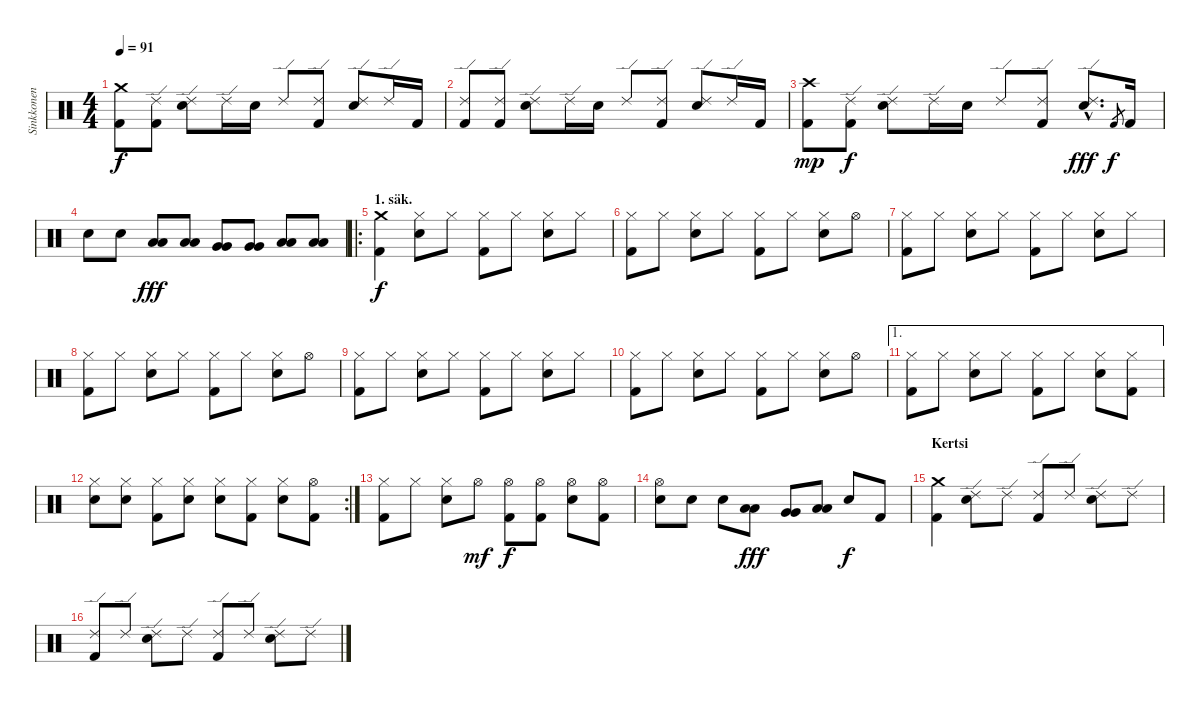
\track ("Sinkkonen" "Sinkkonen") {instrument percussion}
\staff {score}
\articulation defaults
\ts (4 4)
\tempo 91
\clef neutral
\ks c
("Kick (hit) 2" "Crash medium (hit)").8{dy f} ("Kick (hit) 2" "Ride (edge) 2").8 ("Ride (edge) 2" "Snare (hit) 2").8 "Ride (edge) 2".16 "Snare (hit) 2".16 "Ride (edge) 2".8 ("Kick (hit) 2" "Ride (edge) 2").8 ("Ride (edge) 2" "Snare (hit) 2").8 "Ride (edge) 2".16 "Kick (hit) 2".16 |
("Kick (hit) 2" "Ride (edge) 2").8 ("Kick (hit) 2" "Ride (edge) 2").8 ("Ride (edge) 2" "Snare (hit) 2").8 "Ride (edge) 2".16 "Snare (hit) 2".16 "Ride (edge) 2".8 ("Kick (hit) 2" "Ride (edge) 2").8 ("Ride (edge) 2" "Snare (hit) 2").8 "Ride (edge) 2".16 "Kick (hit) 2".16 |
("Kick (hit) 2" "Crash high (hit)").8{dy mp} ("Kick (hit) 2" "Ride (edge) 2").8{dy f} ("Ride (edge) 2" "Snare (hit) 2").8 "Ride (edge) 2".16 "Snare (hit) 2".16 "Ride (edge) 2".8 ("Kick (hit) 2" "Ride (edge) 2").8 ("Ride (edge) 2"{hac} "Snare (hit) 2"{hac}).8{d dy fff} "Kick (hit) 2".8{gr dy f} "Kick (hit) 2".16 |
"Snare (hit) 2".8 "Snare (hit) 2".8 ("Low Tom (hit)" "Low Tom (hit)").8{dy fff} ("Low Tom (hit)" "Low Tom (hit)").8 ("Very Low Tom (hit)" "Very Low Tom (hit)").8 ("Very Low Tom (hit)" "Very Low Tom (hit)").8 ("Low Floor Tom (hit)" "Low Floor Tom (hit)").8 ("Low Floor Tom (hit)" "Low Floor Tom (hit)").8 |
\ro
\section ("" "1. säk.")
("Kick (hit) 2" "Crash medium (hit)").4{dy f} ("Hi-Hat (closed)" "Snare (hit) 2").8 "Hi-Hat (closed)".8 ("Kick (hit) 2" "Hi-Hat (closed)").8 "Hi-Hat (closed)".8 ("Hi-Hat (closed)" "Snare (hit) 2").8 "Hi-Hat (closed)".8 |
("Kick (hit) 2" "Hi-Hat (closed)").8 "Hi-Hat (closed)".8 ("Hi-Hat (closed)" "Snare (hit) 2").8 "Hi-Hat (closed)".8 ("Kick (hit) 2" "Hi-Hat (closed)").8 "Hi-Hat (closed)".8 ("Hi-Hat (closed)" "Snare (hit) 2").8 "Hi-Hat (open)".8 |
("Kick (hit) 2" "Hi-Hat (closed)").8 "Hi-Hat (closed)".8 ("Hi-Hat (closed)" "Snare (hit) 2").8 "Hi-Hat (closed)".8 ("Kick (hit) 2" "Hi-Hat (closed)").8 "Hi-Hat (closed)".8 ("Hi-Hat (closed)" "Snare (hit) 2").8 "Hi-Hat (closed)".8 |
("Kick (hit) 2" "Hi-Hat (closed)").8 "Hi-Hat (closed)".8 ("Hi-Hat (closed)" "Snare (hit) 2").8 "Hi-Hat (closed)".8 ("Kick (hit) 2" "Hi-Hat (closed)").8 "Hi-Hat (closed)".8 ("Hi-Hat (closed)" "Snare (hit) 2").8 "Hi-Hat (open)".8 |
("Kick (hit) 2" "Hi-Hat (closed)").8 "Hi-Hat (closed)".8 ("Hi-Hat (closed)" "Snare (hit) 2").8 "Hi-Hat (closed)".8 ("Kick (hit) 2" "Hi-Hat (closed)").8 "Hi-Hat (closed)".8 ("Hi-Hat (closed)" "Snare (hit) 2").8 "Hi-Hat (closed)".8 |
("Kick (hit) 2" "Hi-Hat (closed)").8 "Hi-Hat (closed)".8 ("Hi-Hat (closed)" "Snare (hit) 2").8 "Hi-Hat (closed)".8 ("Kick (hit) 2" "Hi-Hat (closed)").8 "Hi-Hat (closed)".8 ("Hi-Hat (closed)" "Snare (hit) 2").8 "Hi-Hat (open)".8 |
\ae 1
("Kick (hit) 2" "Hi-Hat (closed)").8 "Hi-Hat (closed)".8 ("Hi-Hat (closed)" "Snare (hit) 2").8 "Hi-Hat (closed)".8 ("Kick (hit) 2" "Hi-Hat (closed)").8 "Hi-Hat (closed)".8 ("Hi-Hat (closed)" "Snare (hit) 2").8 ("Kick (hit) 2" "Hi-Hat (closed)").8 |
\rc 2
("Hi-Hat (closed)" "Snare (hit) 2").8 ("Hi-Hat (closed)" "Snare (hit) 2").8 ("Kick (hit) 2" "Hi-Hat (closed)").8 ("Hi-Hat (closed)" "Snare (hit) 2").8 ("Hi-Hat (closed)" "Snare (hit) 2").8 ("Kick (hit) 2" "Hi-Hat (closed)").8 ("Hi-Hat (closed)" "Snare (hit) 2").8 ("Kick (hit) 2" "Hi-Hat (open)").8 |
("Kick (hit) 2" "Hi-Hat (closed)").8 "Hi-Hat (closed)".8 ("Hi-Hat (closed)" "Snare (hit) 2").8 "Hi-Hat (open)".8{dy mf} ("Kick (hit) 2" "Hi-Hat (open)").8{dy f} ("Kick (hit) 2" "Hi-Hat (open)").8 ("Hi-Hat (open)" "Snare (hit) 2").8 ("Kick (hit) 2" "Hi-Hat (open)").8 |
("Hi-Hat (open)" "Snare (hit) 2").8 "Snare (hit) 2".8 "Snare (hit) 2".8 ("Low Tom (hit)" "Low Tom (hit)").8{dy fff} ("Very Low Tom (hit)" "Very Low Tom (hit)").8 ("Low Floor Tom (hit)" "Low Floor Tom (hit)").8 "Snare (hit) 2".8{dy f} "Kick (hit) 2".8 |
\section ("" "Kertsi")
("Kick (hit) 2" "Crash medium (hit)").4 ("Ride (edge) 2" "Snare (hit) 2").8 "Ride (edge) 2".8 ("Kick (hit) 2" "Ride (edge) 2").8 "Ride (edge) 2".8 ("Ride (edge) 2" "Snare (hit) 2").8 "Ride (edge) 2".8 |
("Kick (hit) 2" "Ride (edge) 2").8 "Ride (edge) 2".8 ("Ride (edge) 2" "Snare (hit) 2").8 "Ride (edge) 2".8 ("Kick (hit) 2" "Ride (edge) 2").8 "Ride (edge) 2".8 ("Ride (edge) 2" "Snare (hit) 2").8 "Ride (edge) 2".8
